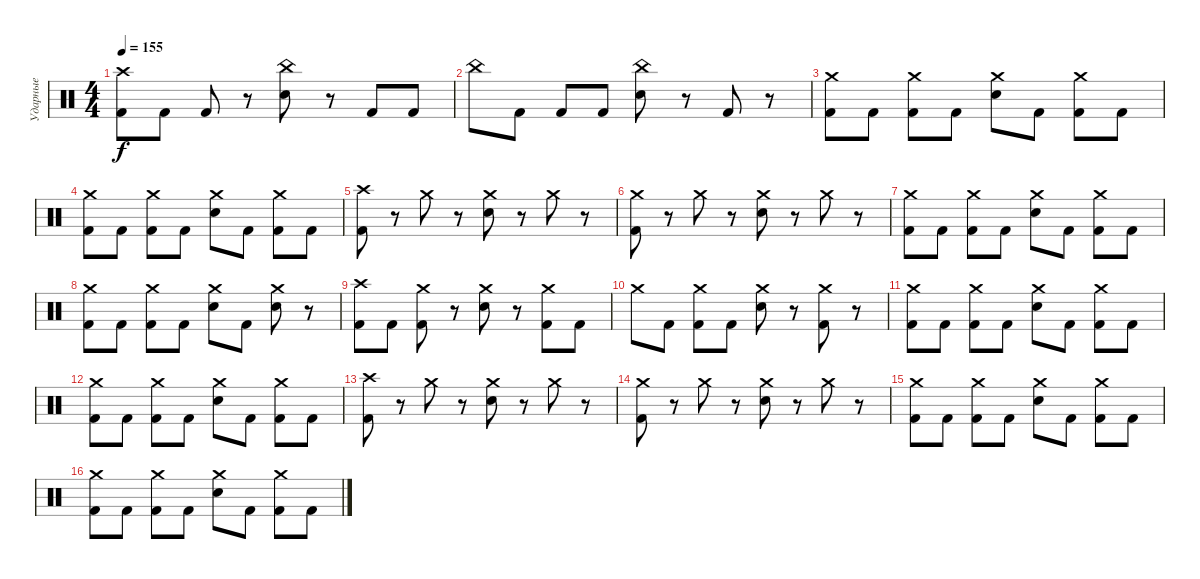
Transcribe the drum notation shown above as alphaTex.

\track ("Ударные" "Ударные") {instrument percussion}
\staff {score}
\articulation defaults
\ts (4 4)
\tempo 155
\clef neutral
\ks c
("Crash high (hit)" "Kick (hit) 2").8{dy f} "Kick (hit) 2".8 "Kick (hit) 2".8 r.8 ("China (hit)" "Electric Snare (hit)").8 r.8 "Kick (hit) 2".8 "Kick (hit) 2".8 |
"China (hit)".8 "Kick (hit) 2".8 "Kick (hit) 2".8 "Kick (hit) 2".8 ("China (hit)" "Electric Snare (hit)").8 r.8 "Kick (hit) 2".8 r.8 |
("Crash medium (hit)" "Kick (hit) 2").8 "Kick (hit) 2".8 ("Crash medium (hit)" "Kick (hit) 2").8 "Kick (hit) 2".8 ("Crash medium (hit)" "Electric Snare (hit)").8 "Kick (hit) 2".8 ("Crash medium (hit)" "Kick (hit) 2").8 "Kick (hit) 2".8 |
("Crash medium (hit)" "Kick (hit) 2").8 "Kick (hit) 2".8 ("Crash medium (hit)" "Kick (hit) 2").8 "Kick (hit) 2".8 ("Crash medium (hit)" "Electric Snare (hit)").8 "Kick (hit) 2".8 ("Crash medium (hit)" "Kick (hit) 2").8 "Kick (hit) 2".8 |
("Crash high (hit)" "Kick (hit) 2").8 r.8 "Crash medium (hit)".8 r.8 ("Crash medium (hit)" "Electric Snare (hit)").8 r.8 "Crash medium (hit)".8 r.8 |
("Crash medium (hit)" "Kick (hit) 2").8 r.8 "Crash medium (hit)".8 r.8 ("Crash medium (hit)" "Electric Snare (hit)").8 r.8 "Crash medium (hit)".8 r.8 |
("Crash medium (hit)" "Kick (hit) 2").8 "Kick (hit) 2".8 ("Crash medium (hit)" "Kick (hit) 2").8 "Kick (hit) 2".8 ("Crash medium (hit)" "Electric Snare (hit)").8 "Kick (hit) 2".8 ("Crash medium (hit)" "Kick (hit) 2").8 "Kick (hit) 2".8 |
("Crash medium (hit)" "Kick (hit) 2").8 "Kick (hit) 2".8 ("Crash medium (hit)" "Kick (hit) 2").8 "Kick (hit) 2".8 ("Crash medium (hit)" "Electric Snare (hit)").8 "Kick (hit) 2".8 ("Crash medium (hit)" "Electric Snare (hit)").8 r.8 |
("Crash high (hit)" "Kick (hit) 2").8 "Kick (hit) 2".8 ("Crash medium (hit)" "Kick (hit) 2").8 r.8 ("Crash medium (hit)" "Electric Snare (hit)").8 r.8 ("Crash medium (hit)" "Kick (hit) 2").8 "Kick (hit) 2".8 |
"Crash medium (hit)".8 "Kick (hit) 2".8 ("Crash medium (hit)" "Kick (hit) 2").8 "Kick (hit) 2".8 ("Crash medium (hit)" "Electric Snare (hit)").8 r.8 ("Crash medium (hit)" "Kick (hit) 2").8 r.8 |
("Crash medium (hit)" "Kick (hit) 2").8 "Kick (hit) 2".8 ("Crash medium (hit)" "Kick (hit) 2").8 "Kick (hit) 2".8 ("Crash medium (hit)" "Electric Snare (hit)").8 "Kick (hit) 2".8 ("Crash medium (hit)" "Kick (hit) 2").8 "Kick (hit) 2".8 |
("Crash medium (hit)" "Kick (hit) 2").8 "Kick (hit) 2".8 ("Crash medium (hit)" "Kick (hit) 2").8 "Kick (hit) 2".8 ("Crash medium (hit)" "Electric Snare (hit)").8 "Kick (hit) 2".8 ("Crash medium (hit)" "Kick (hit) 2").8 "Kick (hit) 2".8 |
("Crash high (hit)" "Kick (hit) 2").8 r.8 "Crash medium (hit)".8 r.8 ("Crash medium (hit)" "Electric Snare (hit)").8 r.8 "Crash medium (hit)".8 r.8 |
("Crash medium (hit)" "Kick (hit) 2").8 r.8 "Crash medium (hit)".8 r.8 ("Crash medium (hit)" "Electric Snare (hit)").8 r.8 "Crash medium (hit)".8 r.8 |
("Crash medium (hit)" "Kick (hit) 2").8 "Kick (hit) 2".8 ("Crash medium (hit)" "Kick (hit) 2").8 "Kick (hit) 2".8 ("Crash medium (hit)" "Electric Snare (hit)").8 "Kick (hit) 2".8 ("Crash medium (hit)" "Kick (hit) 2").8 "Kick (hit) 2".8 |
("Crash medium (hit)" "Kick (hit) 2").8 "Kick (hit) 2".8 ("Crash medium (hit)" "Kick (hit) 2").8 "Kick (hit) 2".8 ("Crash medium (hit)" "Electric Snare (hit)").8 "Kick (hit) 2".8 ("Crash medium (hit)" "Kick (hit) 2").8 "Kick (hit) 2".8
